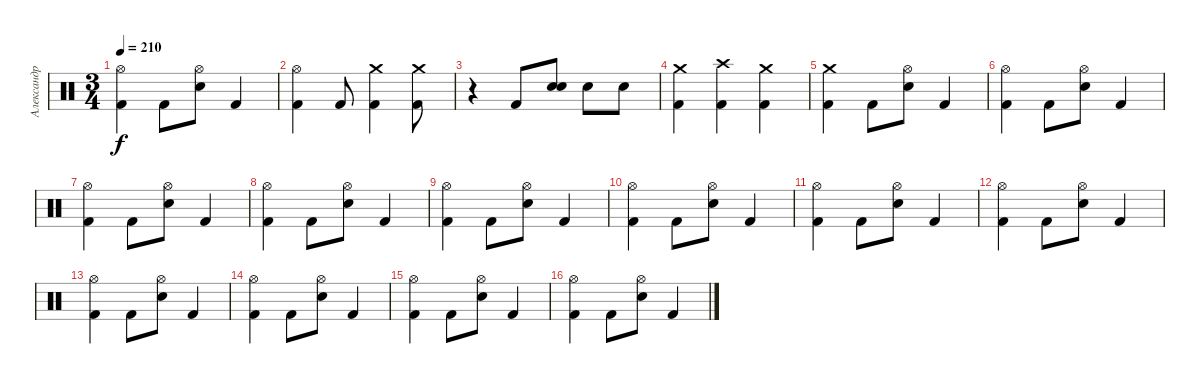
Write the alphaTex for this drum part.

\track ("Александр Манякин" "Александр ") {instrument percussion}
\staff {score}
\articulation defaults
\ts (3 4)
\tempo 210
\clef neutral
\ks c
("Hi-Hat (open)" "Kick (hit) 2").4{dy f} "Kick (hit) 2".8 ("Hi-Hat (open)" "Snare (hit) 2").8 "Kick (hit) 2".4 |
("Hi-Hat (open)" "Kick (hit) 2").4 "Kick (hit) 2".8 ("Crash medium (hit)" "Kick (hit) 2").4 ("Crash medium (hit)" "Kick (hit) 2").8 |
r.4 "Kick (hit) 2".8 ("Snare (hit) 2" "Snare (hit) 2").8{bd 120} "Snare (hit) 2".8 "Snare (hit) 2".8 |
("Crash medium (hit)" "Kick (hit) 2").4 ("Crash high (hit)" "Kick (hit) 2").4 ("Crash medium (hit)" "Kick (hit) 2").4 |
("Crash medium (hit)" "Kick (hit) 2").4 "Kick (hit) 2".8 ("Hi-Hat (open)" "Snare (hit) 2").8 "Kick (hit) 2".4 |
("Hi-Hat (open)" "Kick (hit) 2").4 "Kick (hit) 2".8 ("Hi-Hat (open)" "Snare (hit) 2").8 "Kick (hit) 2".4 |
("Hi-Hat (open)" "Kick (hit) 2").4 "Kick (hit) 2".8 ("Hi-Hat (open)" "Snare (hit) 2").8 "Kick (hit) 2".4 |
("Hi-Hat (open)" "Kick (hit) 2").4 "Kick (hit) 2".8 ("Hi-Hat (open)" "Snare (hit) 2").8 "Kick (hit) 2".4 |
("Hi-Hat (open)" "Kick (hit) 2").4 "Kick (hit) 2".8 ("Hi-Hat (open)" "Snare (hit) 2").8 "Kick (hit) 2".4 |
("Hi-Hat (open)" "Kick (hit) 2").4 "Kick (hit) 2".8 ("Hi-Hat (open)" "Snare (hit) 2").8 "Kick (hit) 2".4 |
("Hi-Hat (open)" "Kick (hit) 2").4 "Kick (hit) 2".8 ("Hi-Hat (open)" "Snare (hit) 2").8 "Kick (hit) 2".4 |
("Hi-Hat (open)" "Kick (hit) 2").4 "Kick (hit) 2".8 ("Hi-Hat (open)" "Snare (hit) 2").8 "Kick (hit) 2".4 |
("Hi-Hat (open)" "Kick (hit) 2").4 "Kick (hit) 2".8 ("Hi-Hat (open)" "Snare (hit) 2").8 "Kick (hit) 2".4 |
("Hi-Hat (open)" "Kick (hit) 2").4 "Kick (hit) 2".8 ("Hi-Hat (open)" "Snare (hit) 2").8 "Kick (hit) 2".4 |
("Hi-Hat (open)" "Kick (hit) 2").4 "Kick (hit) 2".8 ("Hi-Hat (open)" "Snare (hit) 2").8 "Kick (hit) 2".4 |
("Hi-Hat (open)" "Kick (hit) 2").4 "Kick (hit) 2".8 ("Hi-Hat (open)" "Snare (hit) 2").8 "Kick (hit) 2".4
